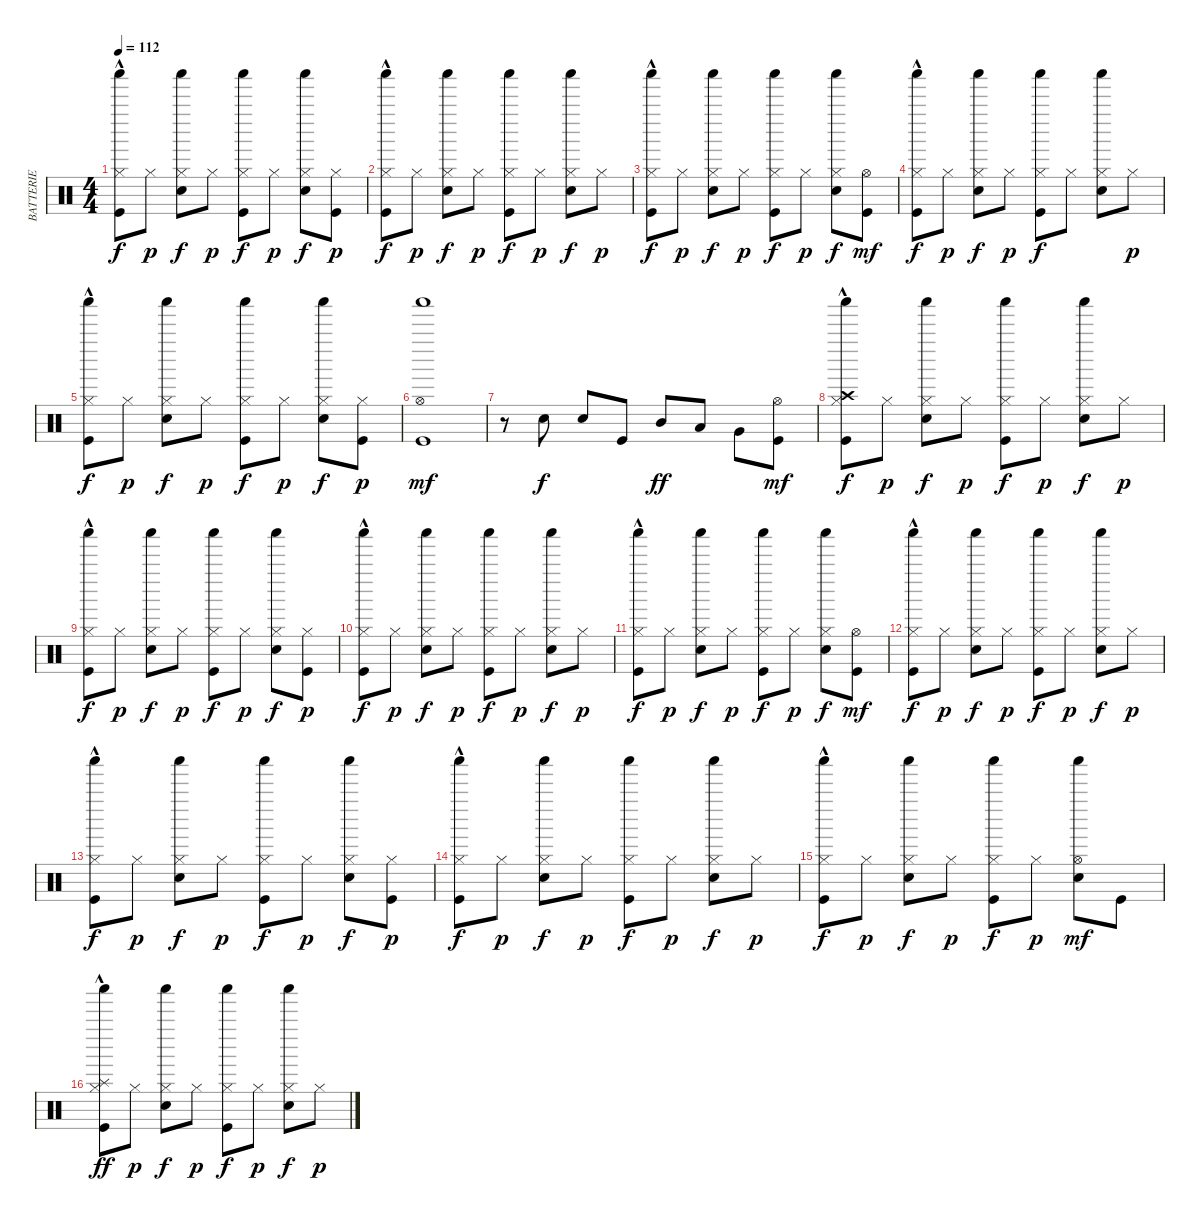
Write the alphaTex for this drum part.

\track ("BATTERIE" "BATTERIE") {instrument percussion}
\staff {score}
\articulation defaults
\ts (4 4)
\tempo 112
\clef neutral
\ks c
("Kick (hit)" "Hi-Hat (closed)"{hac} "Shaker (hit)").8{dy f} "Hi-Hat (closed)".8{dy p} ("Snare (hit) 2" "Hi-Hat (closed)" "Shaker (hit)").8{dy f} "Hi-Hat (closed)".8{dy p} ("Kick (hit)" "Hi-Hat (closed)" "Shaker (hit)").8{dy f} "Hi-Hat (closed)".8{dy p} ("Snare (hit) 2" "Hi-Hat (closed)" "Shaker (hit)").8{dy f} ("Kick (hit)" "Hi-Hat (closed)").8{dy p} |
("Kick (hit)" "Hi-Hat (closed)"{hac} "Shaker (hit)").8{dy f} "Hi-Hat (closed)".8{dy p} ("Snare (hit) 2" "Hi-Hat (closed)" "Shaker (hit)").8{dy f} "Hi-Hat (closed)".8{dy p} ("Kick (hit)" "Hi-Hat (closed)" "Shaker (hit)").8{dy f} "Hi-Hat (closed)".8{dy p} ("Snare (hit) 2" "Hi-Hat (closed)" "Shaker (hit)").8{dy f} "Hi-Hat (closed)".8{dy p} |
("Kick (hit)" "Hi-Hat (closed)"{hac} "Shaker (hit)").8{dy f} "Hi-Hat (closed)".8{dy p} ("Snare (hit) 2" "Hi-Hat (closed)" "Shaker (hit)").8{dy f} "Hi-Hat (closed)".8{dy p} ("Kick (hit)" "Hi-Hat (closed)" "Shaker (hit)").8{dy f} "Hi-Hat (closed)".8{dy p} ("Snare (hit) 2" "Hi-Hat (closed)" "Shaker (hit)").8{dy f} ("Kick (hit)" "Hi-Hat (open)").8{dy mf} |
("Kick (hit)" "Hi-Hat (closed)"{hac} "Shaker (hit)").8{dy f} "Hi-Hat (closed)".8{dy p} ("Snare (hit) 2" "Hi-Hat (closed)" "Shaker (hit)").8{dy f} "Hi-Hat (closed)".8{dy p} ("Kick (hit)" "Hi-Hat (closed)" "Shaker (hit)").8{dy f} "Hi-Hat (closed)".8 ("Snare (hit) 2" "Hi-Hat (closed)" "Shaker (hit)").8 "Hi-Hat (closed)".8{dy p} |
("Kick (hit)" "Hi-Hat (closed)"{hac} "Shaker (hit)").8{dy f} "Hi-Hat (closed)".8{dy p} ("Snare (hit) 2" "Hi-Hat (closed)" "Shaker (hit)").8{dy f} "Hi-Hat (closed)".8{dy p} ("Kick (hit)" "Hi-Hat (closed)" "Shaker (hit)").8{dy f} "Hi-Hat (closed)".8{dy p} ("Snare (hit) 2" "Hi-Hat (closed)" "Shaker (hit)").8{dy f} ("Kick (hit)" "Hi-Hat (closed)").8{dy p} |
("Kick (hit)" "Hi-Hat (open)" "Shaker (hit)").1{dy mf} |
r.8 "Snare (hit) 2".8{dy f} "Snare (hit) 2".8 "Kick (hit)".8 "Mid Tom (hit)".8{dy ff} "Low Tom (hit)".8 "Very Low Tom (hit)".8 ("Kick (hit)" "Hi-Hat (open)").8{dy mf} |
("Kick (hit)" "Hi-Hat (closed)"{hac} "Crash high (hit)"{hac} "Shaker (hit)").8{dy f} "Hi-Hat (closed)".8{dy p} ("Snare (hit) 2" "Hi-Hat (closed)" "Shaker (hit)").8{dy f} "Hi-Hat (closed)".8{dy p} ("Kick (hit)" "Hi-Hat (closed)" "Shaker (hit)").8{dy f} "Hi-Hat (closed)".8{dy p} ("Snare (hit) 2" "Hi-Hat (closed)" "Shaker (hit)").8{dy f} "Hi-Hat (closed)".8{dy p} |
("Kick (hit)" "Hi-Hat (closed)"{hac} "Shaker (hit)").8{dy f} "Hi-Hat (closed)".8{dy p} ("Snare (hit) 2" "Hi-Hat (closed)" "Shaker (hit)").8{dy f} "Hi-Hat (closed)".8{dy p} ("Kick (hit)" "Hi-Hat (closed)" "Shaker (hit)").8{dy f} "Hi-Hat (closed)".8{dy p} ("Snare (hit) 2" "Hi-Hat (closed)" "Shaker (hit)").8{dy f} ("Kick (hit)" "Hi-Hat (closed)").8{dy p} |
("Kick (hit)" "Hi-Hat (closed)"{hac} "Shaker (hit)").8{dy f} "Hi-Hat (closed)".8{dy p} ("Snare (hit) 2" "Hi-Hat (closed)" "Shaker (hit)").8{dy f} "Hi-Hat (closed)".8{dy p} ("Kick (hit)" "Hi-Hat (closed)" "Shaker (hit)").8{dy f} "Hi-Hat (closed)".8{dy p} ("Snare (hit) 2" "Hi-Hat (closed)" "Shaker (hit)").8{dy f} "Hi-Hat (closed)".8{dy p} |
("Kick (hit)" "Hi-Hat (closed)"{hac} "Shaker (hit)").8{dy f} "Hi-Hat (closed)".8{dy p} ("Snare (hit) 2" "Hi-Hat (closed)" "Shaker (hit)").8{dy f} "Hi-Hat (closed)".8{dy p} ("Kick (hit)" "Hi-Hat (closed)" "Shaker (hit)").8{dy f} "Hi-Hat (closed)".8{dy p} ("Snare (hit) 2" "Hi-Hat (closed)" "Shaker (hit)").8{dy f} ("Kick (hit)" "Hi-Hat (open)").8{dy mf} |
("Kick (hit)" "Hi-Hat (closed)"{hac} "Shaker (hit)").8{dy f} "Hi-Hat (closed)".8{dy p} ("Snare (hit) 2" "Hi-Hat (closed)" "Shaker (hit)").8{dy f} "Hi-Hat (closed)".8{dy p} ("Kick (hit)" "Hi-Hat (closed)" "Shaker (hit)").8{dy f} "Hi-Hat (closed)".8{dy p} ("Snare (hit) 2" "Hi-Hat (closed)" "Shaker (hit)").8{dy f} "Hi-Hat (closed)".8{dy p} |
("Kick (hit)" "Hi-Hat (closed)"{hac} "Shaker (hit)").8{dy f} "Hi-Hat (closed)".8{dy p} ("Snare (hit) 2" "Hi-Hat (closed)" "Shaker (hit)").8{dy f} "Hi-Hat (closed)".8{dy p} ("Kick (hit)" "Hi-Hat (closed)" "Shaker (hit)").8{dy f} "Hi-Hat (closed)".8{dy p} ("Snare (hit) 2" "Hi-Hat (closed)" "Shaker (hit)").8{dy f} ("Kick (hit)" "Hi-Hat (closed)").8{dy p} |
("Kick (hit)" "Hi-Hat (closed)"{hac} "Shaker (hit)").8{dy f} "Hi-Hat (closed)".8{dy p} ("Snare (hit) 2" "Hi-Hat (closed)" "Shaker (hit)").8{dy f} "Hi-Hat (closed)".8{dy p} ("Kick (hit)" "Hi-Hat (closed)" "Shaker (hit)").8{dy f} "Hi-Hat (closed)".8{dy p} ("Snare (hit) 2" "Hi-Hat (closed)" "Shaker (hit)").8{dy f} "Hi-Hat (closed)".8{dy p} |
("Kick (hit)" "Hi-Hat (closed)"{hac} "Shaker (hit)").8{dy f} "Hi-Hat (closed)".8{dy p} ("Snare (hit) 2" "Hi-Hat (closed)" "Shaker (hit)").8{dy f} "Hi-Hat (closed)".8{dy p} ("Kick (hit)" "Hi-Hat (closed)" "Shaker (hit)").8{dy f} "Hi-Hat (closed)".8{dy p} ("Snare (hit) 2" "Hi-Hat (open)" "Shaker (hit)").8{dy mf} "Kick (hit)".8 |
("Splash (hit)"{hac} "Kick (hit)" "Hi-Hat (closed)"{hac} "Shaker (hit)").8{dy ff} "Hi-Hat (closed)".8{dy p} ("Snare (hit) 2" "Hi-Hat (closed)" "Shaker (hit)").8{dy f} "Hi-Hat (closed)".8{dy p} ("Kick (hit)" "Hi-Hat (closed)" "Shaker (hit)").8{dy f} "Hi-Hat (closed)".8{dy p} ("Snare (hit) 2" "Hi-Hat (closed)" "Shaker (hit)").8{dy f} "Hi-Hat (closed)".8{dy p}
